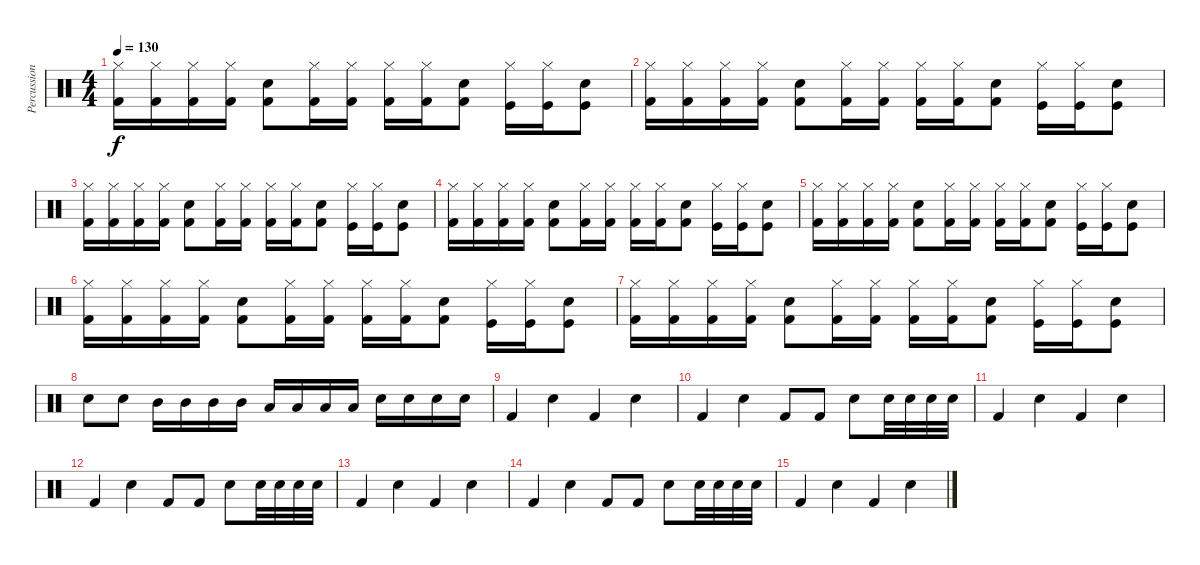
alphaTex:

\track ("Percussioni" "Percussion") {instrument percussion}
\staff {score}
\articulation defaults
\ts (4 4)
\tempo 130
\clef neutral
\ks c
("Kick (hit) 2" "Hi-Hat (closed)").16{dy f} ("Kick (hit) 2" "Hi-Hat (closed)").16 ("Kick (hit) 2" "Hi-Hat (closed)").16 ("Kick (hit) 2" "Hi-Hat (closed)").16 ("Kick (hit) 2" "Snare (hit) 2").8 ("Kick (hit) 2" "Hi-Hat (closed)").16 ("Kick (hit) 2" "Hi-Hat (closed)").16 ("Kick (hit) 2" "Hi-Hat (closed)").16 ("Kick (hit) 2" "Hi-Hat (closed)").16 ("Kick (hit) 2" "Snare (hit) 2").8 ("Kick (hit)" "Hi-Hat (closed)").16 ("Kick (hit)" "Hi-Hat (closed)").16 ("Kick (hit)" "Snare (hit) 2").8 |
("Kick (hit) 2" "Hi-Hat (closed)").16 ("Kick (hit) 2" "Hi-Hat (closed)").16 ("Kick (hit) 2" "Hi-Hat (closed)").16 ("Kick (hit) 2" "Hi-Hat (closed)").16 ("Kick (hit) 2" "Snare (hit) 2").8 ("Kick (hit) 2" "Hi-Hat (closed)").16 ("Kick (hit) 2" "Hi-Hat (closed)").16 ("Kick (hit) 2" "Hi-Hat (closed)").16 ("Kick (hit) 2" "Hi-Hat (closed)").16 ("Kick (hit) 2" "Snare (hit) 2").8 ("Kick (hit)" "Hi-Hat (closed)").16 ("Kick (hit)" "Hi-Hat (closed)").16 ("Kick (hit)" "Snare (hit) 2").8 |
("Kick (hit) 2" "Hi-Hat (closed)").16 ("Kick (hit) 2" "Hi-Hat (closed)").16 ("Kick (hit) 2" "Hi-Hat (closed)").16 ("Kick (hit) 2" "Hi-Hat (closed)").16 ("Kick (hit) 2" "Snare (hit) 2").8 ("Kick (hit) 2" "Hi-Hat (closed)").16 ("Kick (hit) 2" "Hi-Hat (closed)").16 ("Kick (hit) 2" "Hi-Hat (closed)").16 ("Kick (hit) 2" "Hi-Hat (closed)").16 ("Kick (hit) 2" "Snare (hit) 2").8 ("Kick (hit)" "Hi-Hat (closed)").16 ("Kick (hit)" "Hi-Hat (closed)").16 ("Kick (hit)" "Snare (hit) 2").8 |
("Kick (hit) 2" "Hi-Hat (closed)").16 ("Kick (hit) 2" "Hi-Hat (closed)").16 ("Kick (hit) 2" "Hi-Hat (closed)").16 ("Kick (hit) 2" "Hi-Hat (closed)").16 ("Kick (hit) 2" "Snare (hit) 2").8 ("Kick (hit) 2" "Hi-Hat (closed)").16 ("Kick (hit) 2" "Hi-Hat (closed)").16 ("Kick (hit) 2" "Hi-Hat (closed)").16 ("Kick (hit) 2" "Hi-Hat (closed)").16 ("Kick (hit) 2" "Snare (hit) 2").8 ("Kick (hit)" "Hi-Hat (closed)").16 ("Kick (hit)" "Hi-Hat (closed)").16 ("Kick (hit)" "Snare (hit) 2").8 |
("Kick (hit) 2" "Hi-Hat (closed)").16 ("Kick (hit) 2" "Hi-Hat (closed)").16 ("Kick (hit) 2" "Hi-Hat (closed)").16 ("Kick (hit) 2" "Hi-Hat (closed)").16 ("Kick (hit) 2" "Snare (hit) 2").8 ("Kick (hit) 2" "Hi-Hat (closed)").16 ("Kick (hit) 2" "Hi-Hat (closed)").16 ("Kick (hit) 2" "Hi-Hat (closed)").16 ("Kick (hit) 2" "Hi-Hat (closed)").16 ("Kick (hit) 2" "Snare (hit) 2").8 ("Kick (hit)" "Hi-Hat (closed)").16 ("Kick (hit)" "Hi-Hat (closed)").16 ("Kick (hit)" "Snare (hit) 2").8 |
("Kick (hit) 2" "Hi-Hat (closed)").16 ("Kick (hit) 2" "Hi-Hat (closed)").16 ("Kick (hit) 2" "Hi-Hat (closed)").16 ("Kick (hit) 2" "Hi-Hat (closed)").16 ("Kick (hit) 2" "Snare (hit) 2").8 ("Kick (hit) 2" "Hi-Hat (closed)").16 ("Kick (hit) 2" "Hi-Hat (closed)").16 ("Kick (hit) 2" "Hi-Hat (closed)").16 ("Kick (hit) 2" "Hi-Hat (closed)").16 ("Kick (hit) 2" "Snare (hit) 2").8 ("Kick (hit)" "Hi-Hat (closed)").16 ("Kick (hit)" "Hi-Hat (closed)").16 ("Kick (hit)" "Snare (hit) 2").8 |
("Kick (hit) 2" "Hi-Hat (closed)").16 ("Kick (hit) 2" "Hi-Hat (closed)").16 ("Kick (hit) 2" "Hi-Hat (closed)").16 ("Kick (hit) 2" "Hi-Hat (closed)").16 ("Kick (hit) 2" "Snare (hit) 2").8 ("Kick (hit) 2" "Hi-Hat (closed)").16 ("Kick (hit) 2" "Hi-Hat (closed)").16 ("Kick (hit) 2" "Hi-Hat (closed)").16 ("Kick (hit) 2" "Hi-Hat (closed)").16 ("Kick (hit) 2" "Snare (hit) 2").8 ("Kick (hit)" "Hi-Hat (closed)").16 ("Kick (hit)" "Hi-Hat (closed)").16 ("Kick (hit)" "Snare (hit) 2").8 |
"Snare (hit) 2".8 "Snare (hit) 2".8 "Mid Tom (hit)".16 "Mid Tom (hit)".16 "Mid Tom (hit)".16 "Mid Tom (hit)".16 "Low Tom (hit)".16 "Low Tom (hit)".16 "Low Tom (hit)".16 "Low Tom (hit)".16 "Snare (hit) 2".16 "Snare (hit) 2".16 "Snare (hit) 2".16 "Snare (hit) 2".16 |
"Kick (hit) 2".4 "Snare (hit) 2".4 "Kick (hit) 2".4 "Snare (hit) 2".4 |
"Kick (hit) 2".4 "Snare (hit) 2".4 "Kick (hit) 2".8 "Kick (hit) 2".8 "Snare (hit) 2".8 "Snare (hit) 2".32 "Snare (hit) 2".32 "Snare (hit) 2".32 "Snare (hit) 2".32 |
"Kick (hit) 2".4 "Snare (hit) 2".4 "Kick (hit) 2".4 "Snare (hit) 2".4 |
"Kick (hit) 2".4 "Snare (hit) 2".4 "Kick (hit) 2".8 "Kick (hit) 2".8 "Snare (hit) 2".8 "Snare (hit) 2".32 "Snare (hit) 2".32 "Snare (hit) 2".32 "Snare (hit) 2".32 |
"Kick (hit) 2".4 "Snare (hit) 2".4 "Kick (hit) 2".4 "Snare (hit) 2".4 |
"Kick (hit) 2".4 "Snare (hit) 2".4 "Kick (hit) 2".8 "Kick (hit) 2".8 "Snare (hit) 2".8 "Snare (hit) 2".32 "Snare (hit) 2".32 "Snare (hit) 2".32 "Snare (hit) 2".32 |
"Kick (hit) 2".4 "Snare (hit) 2".4 "Kick (hit) 2".4 "Snare (hit) 2".4
